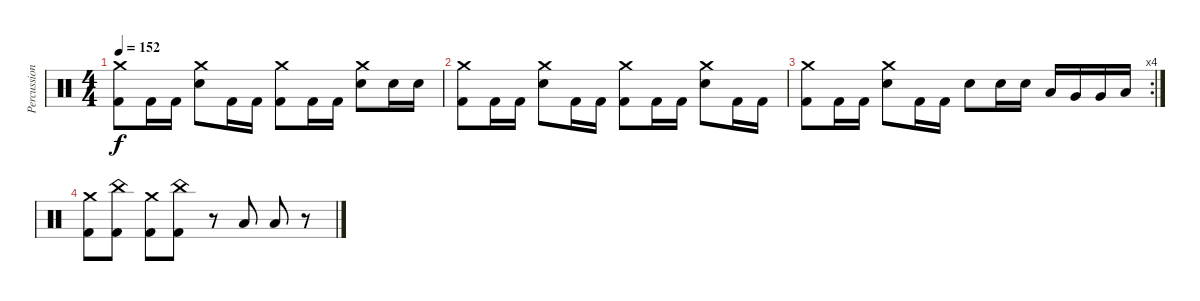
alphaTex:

\track ("Percussion" "Percussion") {instrument percussion}
\staff {score}
\articulation defaults
\ts (4 4)
\tempo 152
\clef neutral
\ks c
("Crash medium (hit)" "Kick (hit) 2").8{dy f} "Kick (hit) 2".16 "Kick (hit) 2".16 ("Crash medium (hit)" "Electric Snare (hit)").8 "Kick (hit) 2".16 "Kick (hit) 2".16 ("Crash medium (hit)" "Kick (hit) 2").8 "Kick (hit) 2".16 "Kick (hit) 2".16 ("Crash medium (hit)" "Electric Snare (hit)").8 "Electric Snare (hit)".16 "Electric Snare (hit)".16 |
("Crash medium (hit)" "Kick (hit) 2").8 "Kick (hit) 2".16 "Kick (hit) 2".16 ("Crash medium (hit)" "Electric Snare (hit)").8 "Kick (hit) 2".16 "Kick (hit) 2".16 ("Crash medium (hit)" "Kick (hit) 2").8 "Kick (hit) 2".16 "Kick (hit) 2".16 ("Crash medium (hit)" "Electric Snare (hit)").8 "Kick (hit) 2".16 "Kick (hit) 2".16 |
\rc 4
("Crash medium (hit)" "Kick (hit) 2").8 "Kick (hit) 2".16 "Kick (hit) 2".16 ("Crash medium (hit)" "Electric Snare (hit)").8 "Kick (hit) 2".16 "Kick (hit) 2".16 "Electric Snare (hit)".8 "Electric Snare (hit)".16 "Electric Snare (hit)".16 "Low Tom (hit)".16 "Very Low Tom (hit)".16 "Very Low Tom (hit)".16 "Low Floor Tom (hit)".16 |
("Crash medium (hit)" "Kick (hit) 2").8 ("China (hit)" "Kick (hit) 2").8 ("Crash medium (hit)" "Kick (hit) 2").8 ("China (hit)" "Kick (hit) 2").8 r.8 "Low Floor Tom (hit)".8 "Low Floor Tom (hit)".8 r.8
